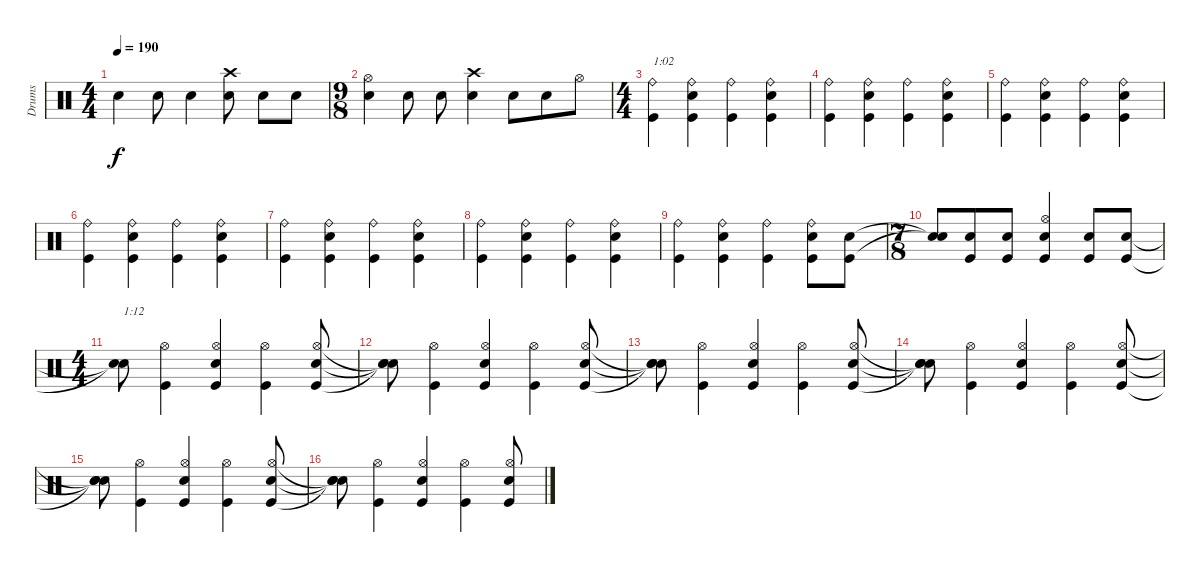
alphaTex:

\track ("Drums" "Drums") {instrument percussion}
\staff {score}
\articulation defaults
\ts (4 4)
\tempo 190
\clef neutral
\ks c "Snare (hit) 2".4{dy f} "Snare (hit) 2".8 "Snare (hit) 2".4
("Snare (hit) 2" "Crash high (hit)").8 "Snare (hit) 2".8 "Snare (hit) 2".8 |
\ts (9 8)
("Snare (hit) 2" "Hi-Hat (open)").4 "Snare (hit) 2".8 "Snare (hit) 2".8 ("Snare (hit) 2" "Crash high (hit)").4 "Snare (hit) 2".8 "Snare (hit) 2".8 "Hi-Hat (open)".8 |
\ts (4 4)
("Kick (hit)" "Ride (bell)").4{txt "1:02"} ("Kick (hit)" "Snare (hit) 2" "Ride (bell)").4 ("Kick (hit)" "Ride (bell)").4 ("Kick (hit)" "Snare (hit) 2" "Ride (bell)").4 |
("Kick (hit)" "Ride (bell)").4 ("Kick (hit)" "Snare (hit) 2" "Ride (bell)").4 ("Kick (hit)" "Ride (bell)").4 ("Kick (hit)" "Snare (hit) 2" "Ride (bell)").4 |
("Kick (hit)" "Ride (bell)").4 ("Kick (hit)" "Snare (hit) 2" "Ride (bell)").4 ("Kick (hit)" "Ride (bell)").4 ("Kick (hit)" "Snare (hit) 2" "Ride (bell)").4 |
("Kick (hit)" "Ride (bell)").4 ("Kick (hit)" "Snare (hit) 2" "Ride (bell)").4 ("Kick (hit)" "Ride (bell)").4 ("Kick (hit)" "Snare (hit) 2" "Ride (bell)").4 |
("Kick (hit)" "Ride (bell)").4 ("Kick (hit)" "Snare (hit) 2" "Ride (bell)").4 ("Kick (hit)" "Ride (bell)").4 ("Kick (hit)" "Snare (hit) 2" "Ride (bell)").4 |
("Kick (hit)" "Ride (bell)").4 ("Kick (hit)" "Snare (hit) 2" "Ride (bell)").4 ("Kick (hit)" "Ride (bell)").4 ("Kick (hit)" "Snare (hit) 2" "Ride (bell)").4 |
("Kick (hit)" "Ride (bell)").4 ("Kick (hit)" "Snare (hit) 2" "Ride (bell)").4 ("Kick (hit)" "Ride (bell)").4 ("Kick (hit)" "Snare (hit) 2" "Ride (bell)").8 ("Kick (hit)" "Snare (hit) 2").8 |
\ts (7 8)
("Snare (hit)"{t} "Snare (hit)"{t}).8 ("Kick (hit)" "Snare (hit) 2").8 ("Kick (hit)" "Snare (hit) 2").8 ("Kick (hit)" "Snare (hit) 2" "Hi-Hat (open)").4 ("Kick (hit)" "Snare (hit) 2").8 ("Kick (hit)" "Snare (hit) 2").8 |
\ts (4 4)
("Snare (hit)"{t} "Snare (hit)"{t}).8{txt "1:12"} ("Kick (hit)" "Hi-Hat (open)").4 ("Kick (hit)" "Snare (hit) 2" "Hi-Hat (open)").4 ("Kick (hit)" "Hi-Hat (open)").4 ("Kick (hit)" "Snare (hit) 2" "Hi-Hat (open)").8 |
("Snare (hit)"{t} "Snare (hit)"{t} "Snare (hit)"{t}).8 ("Kick (hit)" "Hi-Hat (open)").4 ("Kick (hit)" "Snare (hit) 2" "Hi-Hat (open)").4 ("Kick (hit)" "Hi-Hat (open)").4 ("Kick (hit)" "Snare (hit) 2" "Hi-Hat (open)").8 |
("Snare (hit)"{t} "Snare (hit)"{t} "Snare (hit)"{t}).8 ("Kick (hit)" "Hi-Hat (open)").4 ("Kick (hit)" "Snare (hit) 2" "Hi-Hat (open)").4 ("Kick (hit)" "Hi-Hat (open)").4 ("Kick (hit)" "Snare (hit) 2" "Hi-Hat (open)").8 |
("Snare (hit)"{t} "Snare (hit)"{t} "Snare (hit)"{t}).8 ("Kick (hit)" "Hi-Hat (open)").4 ("Kick (hit)" "Snare (hit) 2" "Hi-Hat (open)").4 ("Kick (hit)" "Hi-Hat (open)").4 ("Kick (hit)" "Snare (hit) 2" "Hi-Hat (open)").8 |
("Snare (hit)"{t} "Snare (hit)"{t} "Snare (hit)"{t}).8 ("Kick (hit)" "Hi-Hat (open)").4 ("Kick (hit)" "Snare (hit) 2" "Hi-Hat (open)").4 ("Kick (hit)" "Hi-Hat (open)").4 ("Kick (hit)" "Snare (hit) 2" "Hi-Hat (open)").8 |
("Snare (hit)"{t} "Snare (hit)"{t} "Snare (hit)"{t}).8 ("Kick (hit)" "Hi-Hat (open)").4 ("Kick (hit)" "Snare (hit) 2" "Hi-Hat (open)").4 ("Kick (hit)" "Hi-Hat (open)").4 ("Kick (hit)" "Snare (hit) 2" "Hi-Hat (open)").8
